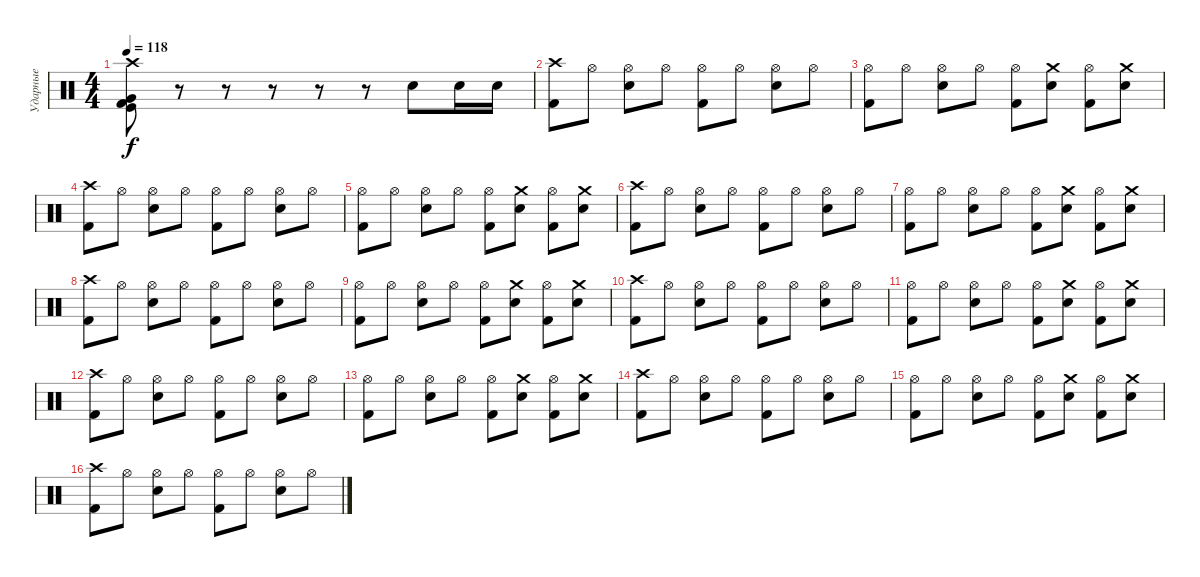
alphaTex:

\track ("Ударные" "Ударные") {instrument percussion}
\staff {score}
\articulation defaults
\ts (4 4)
\tempo 118
\clef neutral
\ks c
("Crash high (hit)" "Very Low Tom (hit)" "Kick (hit) 2" "Kick (hit)").8{dy f} r.8 r.8 r.8 r.8 r.8 "Snare (hit) 2".8 "Snare (hit) 2".16 "Snare (hit) 2".16 |
("Crash high (hit)" "Kick (hit) 2").8 "Hi-Hat (open)".8 ("Hi-Hat (open)" "Snare (hit) 2").8 "Hi-Hat (open)".8 ("Hi-Hat (open)" "Kick (hit) 2").8 "Hi-Hat (open)".8 ("Hi-Hat (open)" "Snare (hit) 2").8 "Hi-Hat (open)".8 |
("Hi-Hat (open)" "Kick (hit) 2").8 "Hi-Hat (open)".8 ("Hi-Hat (open)" "Snare (hit) 2").8 "Hi-Hat (open)".8 ("Hi-Hat (open)" "Kick (hit) 2").8 ("Crash medium (hit)" "Snare (hit) 2").8 ("Hi-Hat (open)" "Kick (hit) 2").8 ("Crash medium (hit)" "Snare (hit) 2").8 |
("Crash high (hit)" "Kick (hit) 2").8 "Hi-Hat (open)".8 ("Hi-Hat (open)" "Snare (hit) 2").8 "Hi-Hat (open)".8 ("Hi-Hat (open)" "Kick (hit) 2").8 "Hi-Hat (open)".8 ("Hi-Hat (open)" "Snare (hit) 2").8 "Hi-Hat (open)".8 |
("Hi-Hat (open)" "Kick (hit) 2").8 "Hi-Hat (open)".8 ("Hi-Hat (open)" "Snare (hit) 2").8 "Hi-Hat (open)".8 ("Hi-Hat (open)" "Kick (hit) 2").8 ("Crash medium (hit)" "Snare (hit) 2").8 ("Hi-Hat (open)" "Kick (hit) 2").8 ("Crash medium (hit)" "Snare (hit) 2").8 |
("Crash high (hit)" "Kick (hit) 2").8 "Hi-Hat (open)".8 ("Hi-Hat (open)" "Snare (hit) 2").8 "Hi-Hat (open)".8 ("Hi-Hat (open)" "Kick (hit) 2").8 "Hi-Hat (open)".8 ("Hi-Hat (open)" "Snare (hit) 2").8 "Hi-Hat (open)".8 |
("Hi-Hat (open)" "Kick (hit) 2").8 "Hi-Hat (open)".8 ("Hi-Hat (open)" "Snare (hit) 2").8 "Hi-Hat (open)".8 ("Hi-Hat (open)" "Kick (hit) 2").8 ("Crash medium (hit)" "Snare (hit) 2").8 ("Hi-Hat (open)" "Kick (hit) 2").8 ("Crash medium (hit)" "Snare (hit) 2").8 |
("Crash high (hit)" "Kick (hit) 2").8 "Hi-Hat (open)".8 ("Hi-Hat (open)" "Snare (hit) 2").8 "Hi-Hat (open)".8 ("Hi-Hat (open)" "Kick (hit) 2").8 "Hi-Hat (open)".8 ("Hi-Hat (open)" "Snare (hit) 2").8 "Hi-Hat (open)".8 |
("Hi-Hat (open)" "Kick (hit) 2").8 "Hi-Hat (open)".8 ("Hi-Hat (open)" "Snare (hit) 2").8 "Hi-Hat (open)".8 ("Hi-Hat (open)" "Kick (hit) 2").8 ("Crash medium (hit)" "Snare (hit) 2").8 ("Hi-Hat (open)" "Kick (hit) 2").8 ("Crash medium (hit)" "Snare (hit) 2").8 |
("Crash high (hit)" "Kick (hit) 2").8 "Hi-Hat (open)".8 ("Hi-Hat (open)" "Snare (hit) 2").8 "Hi-Hat (open)".8 ("Hi-Hat (open)" "Kick (hit) 2").8 "Hi-Hat (open)".8 ("Hi-Hat (open)" "Snare (hit) 2").8 "Hi-Hat (open)".8 |
("Hi-Hat (open)" "Kick (hit) 2").8 "Hi-Hat (open)".8 ("Hi-Hat (open)" "Snare (hit) 2").8 "Hi-Hat (open)".8 ("Hi-Hat (open)" "Kick (hit) 2").8 ("Crash medium (hit)" "Snare (hit) 2").8 ("Hi-Hat (open)" "Kick (hit) 2").8 ("Crash medium (hit)" "Snare (hit) 2").8 |
("Crash high (hit)" "Kick (hit) 2").8 "Hi-Hat (open)".8 ("Hi-Hat (open)" "Snare (hit) 2").8 "Hi-Hat (open)".8 ("Hi-Hat (open)" "Kick (hit) 2").8 "Hi-Hat (open)".8 ("Hi-Hat (open)" "Snare (hit) 2").8 "Hi-Hat (open)".8 |
("Hi-Hat (open)" "Kick (hit) 2").8 "Hi-Hat (open)".8 ("Hi-Hat (open)" "Snare (hit) 2").8 "Hi-Hat (open)".8 ("Hi-Hat (open)" "Kick (hit) 2").8 ("Crash medium (hit)" "Snare (hit) 2").8 ("Hi-Hat (open)" "Kick (hit) 2").8 ("Crash medium (hit)" "Snare (hit) 2").8 |
("Crash high (hit)" "Kick (hit) 2").8 "Hi-Hat (open)".8 ("Hi-Hat (open)" "Snare (hit) 2").8 "Hi-Hat (open)".8 ("Hi-Hat (open)" "Kick (hit) 2").8 "Hi-Hat (open)".8 ("Hi-Hat (open)" "Snare (hit) 2").8 "Hi-Hat (open)".8 |
("Hi-Hat (open)" "Kick (hit) 2").8 "Hi-Hat (open)".8 ("Hi-Hat (open)" "Snare (hit) 2").8 "Hi-Hat (open)".8 ("Hi-Hat (open)" "Kick (hit) 2").8 ("Crash medium (hit)" "Snare (hit) 2").8 ("Hi-Hat (open)" "Kick (hit) 2").8 ("Crash medium (hit)" "Snare (hit) 2").8 |
("Crash high (hit)" "Kick (hit) 2").8 "Hi-Hat (open)".8 ("Hi-Hat (open)" "Snare (hit) 2").8 "Hi-Hat (open)".8 ("Hi-Hat (open)" "Kick (hit) 2").8 "Hi-Hat (open)".8 ("Hi-Hat (open)" "Snare (hit) 2").8 "Hi-Hat (open)".8
